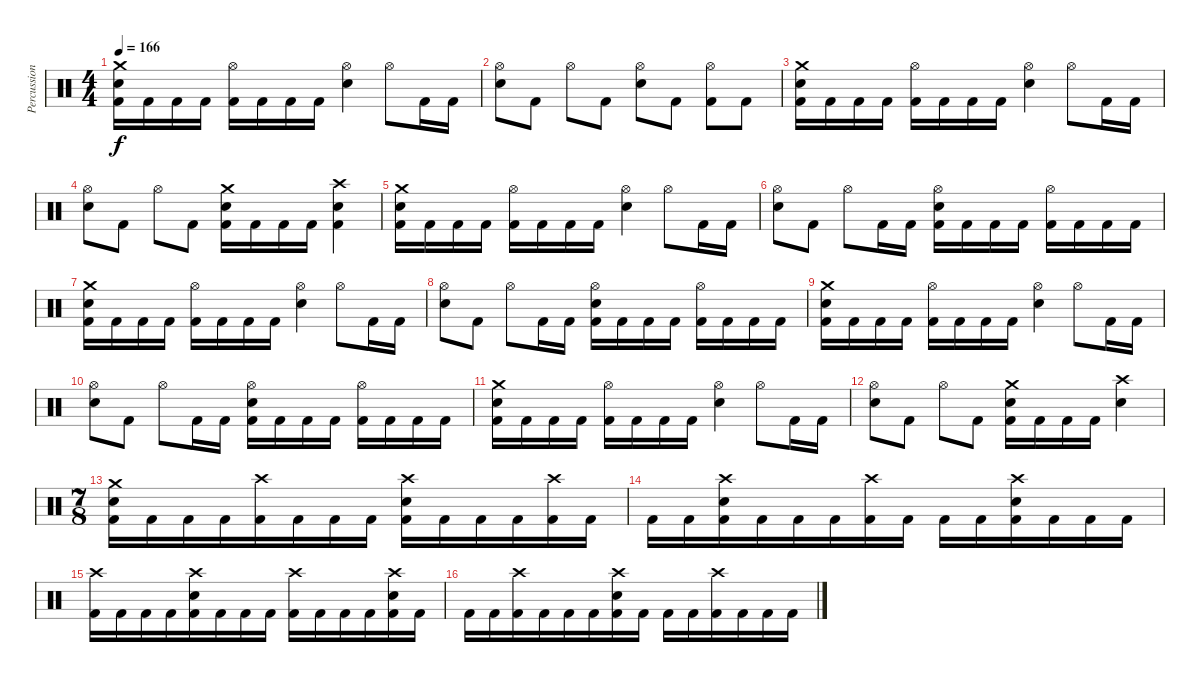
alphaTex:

\track ("Percussion" "Percussion") {instrument percussion}
\staff {score}
\articulation defaults
\ts (4 4)
\tempo 166
\clef neutral
\ks c
("Crash medium (hit)" "Electric Snare (hit)" "Kick (hit) 2").16{dy f} "Kick (hit) 2".16 "Kick (hit) 2".16 "Kick (hit) 2".16 ("Hi-Hat (open)" "Kick (hit) 2").16 "Kick (hit) 2".16 "Kick (hit) 2".16 "Kick (hit) 2".16 ("Hi-Hat (open)" "Electric Snare (hit)").4 "Hi-Hat (open)".8 "Kick (hit) 2".16 "Kick (hit) 2".16 |
("Hi-Hat (open)" "Electric Snare (hit)").8 "Kick (hit) 2".8 "Hi-Hat (open)".8 "Kick (hit) 2".8 ("Hi-Hat (open)" "Electric Snare (hit)").8 "Kick (hit) 2".8 ("Hi-Hat (open)" "Kick (hit) 2").8 "Kick (hit) 2".8 |
("Crash medium (hit)" "Electric Snare (hit)" "Kick (hit) 2").16 "Kick (hit) 2".16 "Kick (hit) 2".16 "Kick (hit) 2".16 ("Hi-Hat (open)" "Kick (hit) 2").16 "Kick (hit) 2".16 "Kick (hit) 2".16 "Kick (hit) 2".16 ("Hi-Hat (open)" "Electric Snare (hit)").4 "Hi-Hat (open)".8 "Kick (hit) 2".16 "Kick (hit) 2".16 |
("Hi-Hat (open)" "Electric Snare (hit)").8 "Kick (hit) 2".8 "Hi-Hat (open)".8 "Kick (hit) 2".8 ("Crash medium (hit)" "Electric Snare (hit)" "Kick (hit) 2").16 "Kick (hit) 2".16 "Kick (hit) 2".16 "Kick (hit) 2".16 ("Crash high (hit)" "Electric Snare (hit)" "Kick (hit) 2").4 |
("Crash medium (hit)" "Electric Snare (hit)" "Kick (hit) 2").16 "Kick (hit) 2".16 "Kick (hit) 2".16 "Kick (hit) 2".16 ("Hi-Hat (open)" "Kick (hit) 2").16 "Kick (hit) 2".16 "Kick (hit) 2".16 "Kick (hit) 2".16 ("Hi-Hat (open)" "Electric Snare (hit)").4 "Hi-Hat (open)".8 "Kick (hit) 2".16 "Kick (hit) 2".16 |
("Hi-Hat (open)" "Electric Snare (hit)").8 "Kick (hit) 2".8 "Hi-Hat (open)".8 "Kick (hit) 2".16 "Kick (hit) 2".16 ("Hi-Hat (open)" "Electric Snare (hit)" "Kick (hit) 2").16 "Kick (hit) 2".16 "Kick (hit) 2".16 "Kick (hit) 2".16 ("Hi-Hat (open)" "Kick (hit) 2").16 "Kick (hit) 2".16 "Kick (hit) 2".16 "Kick (hit) 2".16 |
("Crash medium (hit)" "Electric Snare (hit)" "Kick (hit) 2").16 "Kick (hit) 2".16 "Kick (hit) 2".16 "Kick (hit) 2".16 ("Hi-Hat (open)" "Kick (hit) 2").16 "Kick (hit) 2".16 "Kick (hit) 2".16 "Kick (hit) 2".16 ("Hi-Hat (open)" "Electric Snare (hit)").4 "Hi-Hat (open)".8 "Kick (hit) 2".16 "Kick (hit) 2".16 |
("Hi-Hat (open)" "Electric Snare (hit)").8 "Kick (hit) 2".8 "Hi-Hat (open)".8 "Kick (hit) 2".16 "Kick (hit) 2".16 ("Hi-Hat (open)" "Electric Snare (hit)" "Kick (hit) 2").16 "Kick (hit) 2".16 "Kick (hit) 2".16 "Kick (hit) 2".16 ("Hi-Hat (open)" "Kick (hit) 2").16 "Kick (hit) 2".16 "Kick (hit) 2".16 "Kick (hit) 2".16 |
("Crash medium (hit)" "Electric Snare (hit)" "Kick (hit) 2").16 "Kick (hit) 2".16 "Kick (hit) 2".16 "Kick (hit) 2".16 ("Hi-Hat (open)" "Kick (hit) 2").16 "Kick (hit) 2".16 "Kick (hit) 2".16 "Kick (hit) 2".16 ("Hi-Hat (open)" "Electric Snare (hit)").4 "Hi-Hat (open)".8 "Kick (hit) 2".16 "Kick (hit) 2".16 |
("Hi-Hat (open)" "Electric Snare (hit)").8 "Kick (hit) 2".8 "Hi-Hat (open)".8 "Kick (hit) 2".16 "Kick (hit) 2".16 ("Hi-Hat (open)" "Electric Snare (hit)" "Kick (hit) 2").16 "Kick (hit) 2".16 "Kick (hit) 2".16 "Kick (hit) 2".16 ("Hi-Hat (open)" "Kick (hit) 2").16 "Kick (hit) 2".16 "Kick (hit) 2".16 "Kick (hit) 2".16 |
("Crash medium (hit)" "Electric Snare (hit)" "Kick (hit) 2").16 "Kick (hit) 2".16 "Kick (hit) 2".16 "Kick (hit) 2".16 ("Hi-Hat (open)" "Kick (hit) 2").16 "Kick (hit) 2".16 "Kick (hit) 2".16 "Kick (hit) 2".16 ("Hi-Hat (open)" "Electric Snare (hit)").4 "Hi-Hat (open)".8 "Kick (hit) 2".16 "Kick (hit) 2".16 |
("Hi-Hat (open)" "Electric Snare (hit)").8 "Kick (hit) 2".8 "Hi-Hat (open)".8 "Kick (hit) 2".8 ("Crash medium (hit)" "Electric Snare (hit)" "Kick (hit) 2").16 "Kick (hit) 2".16 "Kick (hit) 2".16 "Kick (hit) 2".16 ("Crash high (hit)" "Electric Snare (hit)").4 |
\ts (7 8)
("Crash medium (hit)" "Electric Snare (hit)" "Kick (hit) 2").16 "Kick (hit) 2".16 "Kick (hit) 2".16 "Kick (hit) 2".16 ("Crash high (hit)" "Kick (hit) 2").16 "Kick (hit) 2".16 "Kick (hit) 2".16 "Kick (hit) 2".16 ("Crash high (hit)" "Electric Snare (hit)" "Kick (hit) 2").16 "Kick (hit) 2".16 "Kick (hit) 2".16 "Kick (hit) 2".16 ("Crash high (hit)" "Kick (hit) 2").16 "Kick (hit) 2".16 |
"Kick (hit) 2".16 "Kick (hit) 2".16 ("Crash high (hit)" "Electric Snare (hit)" "Kick (hit) 2").16 "Kick (hit) 2".16 "Kick (hit) 2".16 "Kick (hit) 2".16 ("Crash high (hit)" "Kick (hit) 2").16 "Kick (hit) 2".16 "Kick (hit) 2".16 "Kick (hit) 2".16 ("Crash high (hit)" "Electric Snare (hit)" "Kick (hit) 2").16 "Kick (hit) 2".16 "Kick (hit) 2".16 "Kick (hit) 2".16 |
("Crash high (hit)" "Kick (hit) 2").16 "Kick (hit) 2".16 "Kick (hit) 2".16 "Kick (hit) 2".16 ("Crash high (hit)" "Electric Snare (hit)" "Kick (hit) 2").16 "Kick (hit) 2".16 "Kick (hit) 2".16 "Kick (hit) 2".16 ("Crash high (hit)" "Kick (hit) 2").16 "Kick (hit) 2".16 "Kick (hit) 2".16 "Kick (hit) 2".16 ("Crash high (hit)" "Electric Snare (hit)" "Kick (hit) 2").16 "Kick (hit) 2".16 |
"Kick (hit) 2".16 "Kick (hit) 2".16 ("Crash high (hit)" "Kick (hit) 2").16 "Kick (hit) 2".16 "Kick (hit) 2".16 "Kick (hit) 2".16 ("Crash high (hit)" "Electric Snare (hit)" "Kick (hit) 2").16 "Kick (hit) 2".16 "Kick (hit) 2".16 "Kick (hit) 2".16 ("Crash high (hit)" "Kick (hit) 2").16 "Kick (hit) 2".16 "Kick (hit) 2".16 "Kick (hit) 2".16
